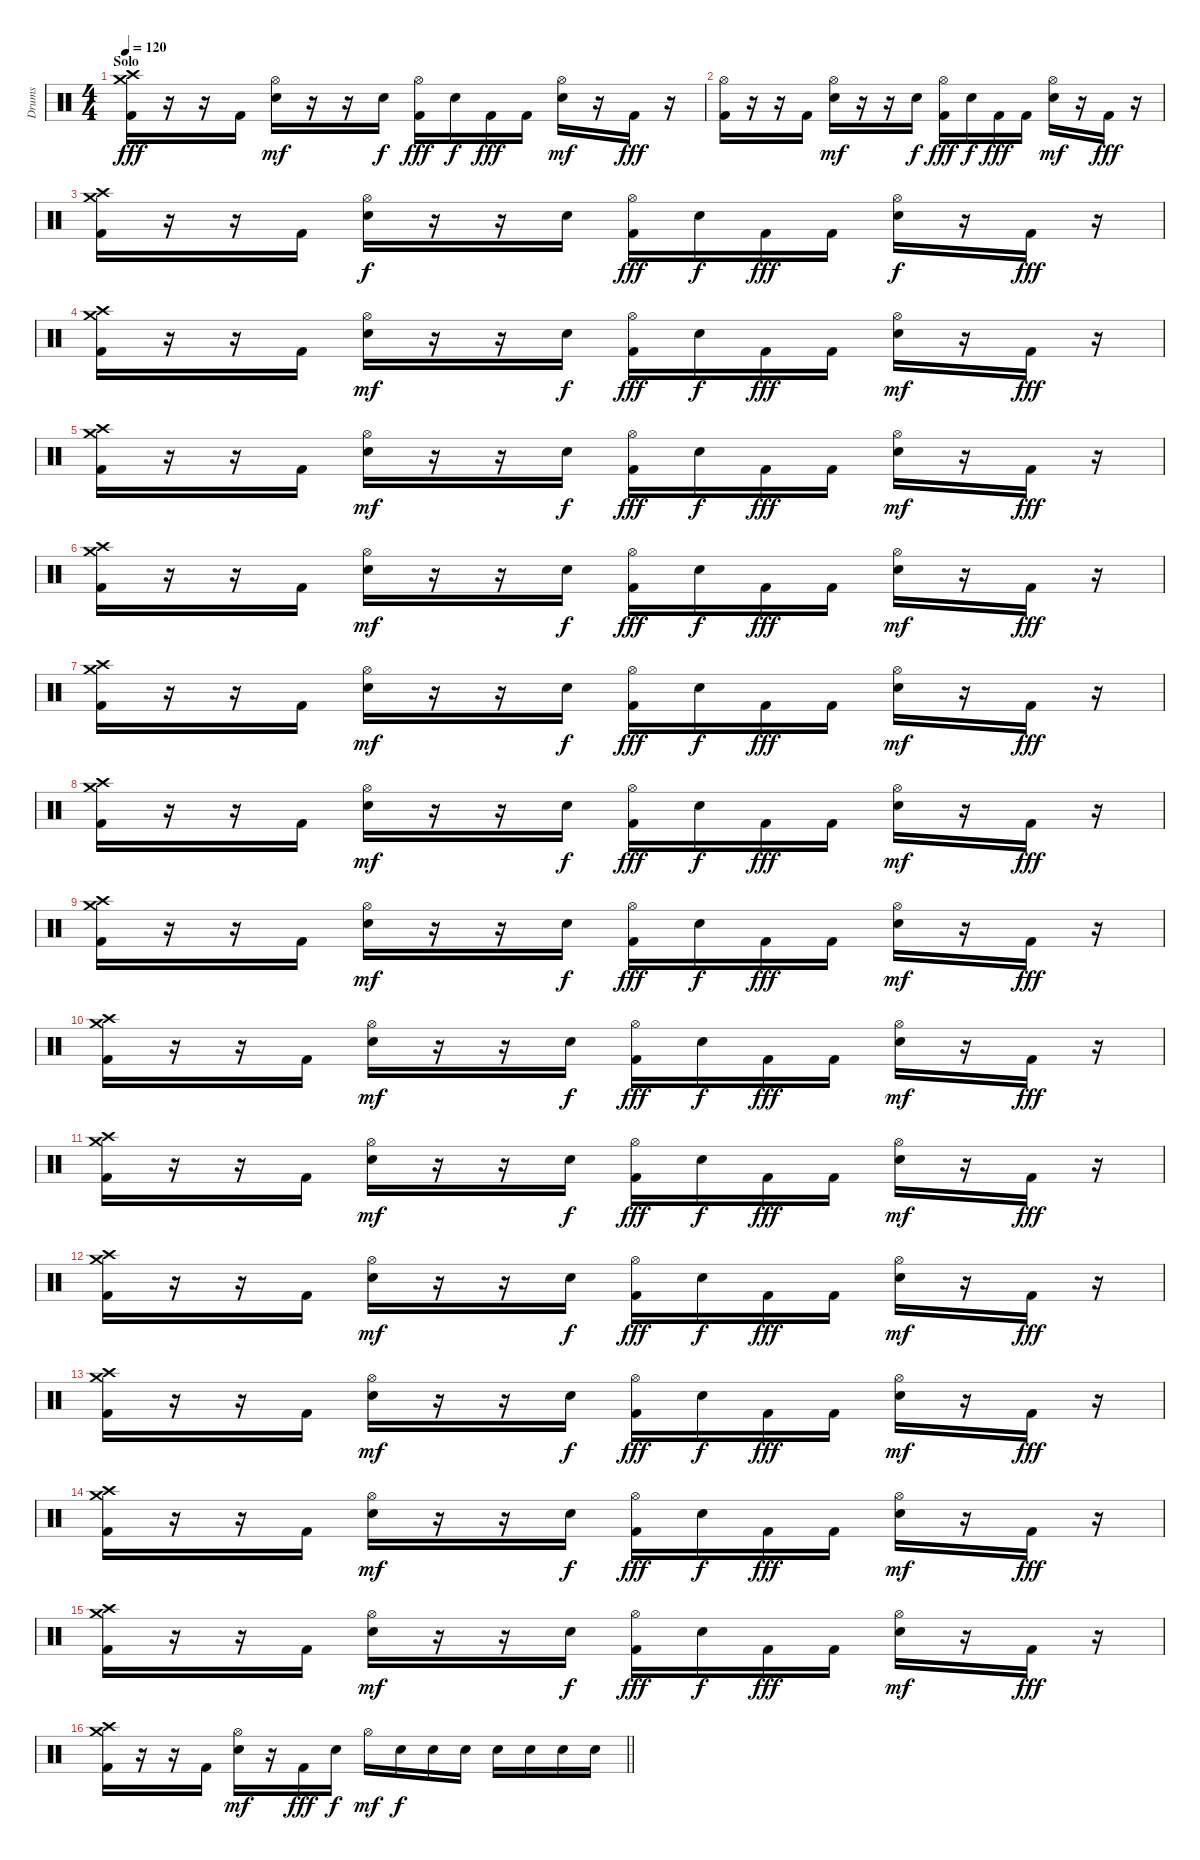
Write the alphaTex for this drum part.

\track ("Drums" "Drums") {instrument percussion}
\staff {score}
\articulation defaults
\ts (4 4)
\section ("" "Solo")
\tempo 120
\clef neutral
\ks c
("Crash medium (hit)" "Crash high (hit)" "Kick (hit) 2").16{dy fff} r.16 r.16 "Kick (hit) 2".16 ("Hi-Hat (open)" "Snare (hit) 2").16{dy mf} r.16 r.16 "Snare (hit) 2".16{dy f} ("Hi-Hat (open)" "Kick (hit) 2").16{dy fff} "Snare (hit) 2".16{dy f} "Kick (hit) 2".16{dy fff} "Kick (hit) 2".16 ("Hi-Hat (open)" "Snare (hit) 2").16{dy mf} r.16 "Kick (hit) 2".16{dy fff} r.16 |
("Hi-Hat (open)" "Kick (hit) 2").16 r.16 r.16 "Kick (hit) 2".16 ("Hi-Hat (open)" "Snare (hit) 2").16{dy mf} r.16 r.16 "Snare (hit) 2".16{dy f} ("Hi-Hat (open)" "Kick (hit) 2").16{dy fff} "Snare (hit) 2".16{dy f} "Kick (hit) 2".16{dy fff} "Kick (hit) 2".16 ("Hi-Hat (open)" "Snare (hit) 2").16{dy mf} r.16 "Kick (hit) 2".16{dy fff} r.16 |
("Crash medium (hit)" "Crash high (hit)" "Kick (hit) 2").16 r.16 r.16 "Kick (hit) 2".16 ("Hi-Hat (open)" "Snare (hit) 2").16{dy f} r.16 r.16 "Snare (hit) 2".16 ("Hi-Hat (open)" "Kick (hit) 2").16{dy fff} "Snare (hit) 2".16{dy f} "Kick (hit) 2".16{dy fff} "Kick (hit) 2".16 ("Hi-Hat (open)" "Snare (hit) 2").16{dy f} r.16 "Kick (hit) 2".16{dy fff} r.16 |
("Crash medium (hit)" "Crash high (hit)" "Kick (hit) 2").16 r.16 r.16 "Kick (hit) 2".16 ("Hi-Hat (open)" "Snare (hit) 2").16{dy mf} r.16 r.16 "Snare (hit) 2".16{dy f} ("Hi-Hat (open)" "Kick (hit) 2").16{dy fff} "Snare (hit) 2".16{dy f} "Kick (hit) 2".16{dy fff} "Kick (hit) 2".16 ("Hi-Hat (open)" "Snare (hit) 2").16{dy mf} r.16 "Kick (hit) 2".16{dy fff} r.16 |
("Crash medium (hit)" "Crash high (hit)" "Kick (hit) 2").16 r.16 r.16 "Kick (hit) 2".16 ("Hi-Hat (open)" "Snare (hit) 2").16{dy mf} r.16 r.16 "Snare (hit) 2".16{dy f} ("Hi-Hat (open)" "Kick (hit) 2").16{dy fff} "Snare (hit) 2".16{dy f} "Kick (hit) 2".16{dy fff} "Kick (hit) 2".16 ("Hi-Hat (open)" "Snare (hit) 2").16{dy mf} r.16 "Kick (hit) 2".16{dy fff} r.16 |
("Crash medium (hit)" "Crash high (hit)" "Kick (hit) 2").16 r.16 r.16 "Kick (hit) 2".16 ("Hi-Hat (open)" "Snare (hit) 2").16{dy mf} r.16 r.16 "Snare (hit) 2".16{dy f} ("Hi-Hat (open)" "Kick (hit) 2").16{dy fff} "Snare (hit) 2".16{dy f} "Kick (hit) 2".16{dy fff} "Kick (hit) 2".16 ("Hi-Hat (open)" "Snare (hit) 2").16{dy mf} r.16 "Kick (hit) 2".16{dy fff} r.16 |
("Crash medium (hit)" "Crash high (hit)" "Kick (hit) 2").16 r.16 r.16 "Kick (hit) 2".16 ("Hi-Hat (open)" "Snare (hit) 2").16{dy mf} r.16 r.16 "Snare (hit) 2".16{dy f} ("Hi-Hat (open)" "Kick (hit) 2").16{dy fff} "Snare (hit) 2".16{dy f} "Kick (hit) 2".16{dy fff} "Kick (hit) 2".16 ("Hi-Hat (open)" "Snare (hit) 2").16{dy mf} r.16 "Kick (hit) 2".16{dy fff} r.16 |
("Crash medium (hit)" "Crash high (hit)" "Kick (hit) 2").16 r.16 r.16 "Kick (hit) 2".16 ("Hi-Hat (open)" "Snare (hit) 2").16{dy mf} r.16 r.16 "Snare (hit) 2".16{dy f} ("Hi-Hat (open)" "Kick (hit) 2").16{dy fff} "Snare (hit) 2".16{dy f} "Kick (hit) 2".16{dy fff} "Kick (hit) 2".16 ("Hi-Hat (open)" "Snare (hit) 2").16{dy mf} r.16 "Kick (hit) 2".16{dy fff} r.16 |
("Crash medium (hit)" "Crash high (hit)" "Kick (hit) 2").16 r.16 r.16 "Kick (hit) 2".16 ("Hi-Hat (open)" "Snare (hit) 2").16{dy mf} r.16 r.16 "Snare (hit) 2".16{dy f} ("Hi-Hat (open)" "Kick (hit) 2").16{dy fff} "Snare (hit) 2".16{dy f} "Kick (hit) 2".16{dy fff} "Kick (hit) 2".16 ("Hi-Hat (open)" "Snare (hit) 2").16{dy mf} r.16 "Kick (hit) 2".16{dy fff} r.16 |
("Crash medium (hit)" "Crash high (hit)" "Kick (hit) 2").16 r.16 r.16 "Kick (hit) 2".16 ("Hi-Hat (open)" "Snare (hit) 2").16{dy mf} r.16 r.16 "Snare (hit) 2".16{dy f} ("Hi-Hat (open)" "Kick (hit) 2").16{dy fff} "Snare (hit) 2".16{dy f} "Kick (hit) 2".16{dy fff} "Kick (hit) 2".16 ("Hi-Hat (open)" "Snare (hit) 2").16{dy mf} r.16 "Kick (hit) 2".16{dy fff} r.16 |
("Crash medium (hit)" "Crash high (hit)" "Kick (hit) 2").16 r.16 r.16 "Kick (hit) 2".16 ("Hi-Hat (open)" "Snare (hit) 2").16{dy mf} r.16 r.16 "Snare (hit) 2".16{dy f} ("Hi-Hat (open)" "Kick (hit) 2").16{dy fff} "Snare (hit) 2".16{dy f} "Kick (hit) 2".16{dy fff} "Kick (hit) 2".16 ("Hi-Hat (open)" "Snare (hit) 2").16{dy mf} r.16 "Kick (hit) 2".16{dy fff} r.16 |
("Crash medium (hit)" "Crash high (hit)" "Kick (hit) 2").16 r.16 r.16 "Kick (hit) 2".16 ("Hi-Hat (open)" "Snare (hit) 2").16{dy mf} r.16 r.16 "Snare (hit) 2".16{dy f} ("Hi-Hat (open)" "Kick (hit) 2").16{dy fff} "Snare (hit) 2".16{dy f} "Kick (hit) 2".16{dy fff} "Kick (hit) 2".16 ("Hi-Hat (open)" "Snare (hit) 2").16{dy mf} r.16 "Kick (hit) 2".16{dy fff} r.16 |
("Crash medium (hit)" "Crash high (hit)" "Kick (hit) 2").16 r.16 r.16 "Kick (hit) 2".16 ("Hi-Hat (open)" "Snare (hit) 2").16{dy mf} r.16 r.16 "Snare (hit) 2".16{dy f} ("Hi-Hat (open)" "Kick (hit) 2").16{dy fff} "Snare (hit) 2".16{dy f} "Kick (hit) 2".16{dy fff} "Kick (hit) 2".16 ("Hi-Hat (open)" "Snare (hit) 2").16{dy mf} r.16 "Kick (hit) 2".16{dy fff} r.16 |
("Crash medium (hit)" "Crash high (hit)" "Kick (hit) 2").16 r.16 r.16 "Kick (hit) 2".16 ("Hi-Hat (open)" "Snare (hit) 2").16{dy mf} r.16 r.16 "Snare (hit) 2".16{dy f} ("Hi-Hat (open)" "Kick (hit) 2").16{dy fff} "Snare (hit) 2".16{dy f} "Kick (hit) 2".16{dy fff} "Kick (hit) 2".16 ("Hi-Hat (open)" "Snare (hit) 2").16{dy mf} r.16 "Kick (hit) 2".16{dy fff} r.16 |
("Crash medium (hit)" "Crash high (hit)" "Kick (hit) 2").16 r.16 r.16 "Kick (hit) 2".16 ("Hi-Hat (open)" "Snare (hit) 2").16{dy mf} r.16 r.16 "Snare (hit) 2".16{dy f} ("Hi-Hat (open)" "Kick (hit) 2").16{dy fff} "Snare (hit) 2".16{dy f} "Kick (hit) 2".16{dy fff} "Kick (hit) 2".16 ("Hi-Hat (open)" "Snare (hit) 2").16{dy mf} r.16 "Kick (hit) 2".16{dy fff} r.16 |
\barLineRight lightlight
("Crash medium (hit)" "Crash high (hit)" "Kick (hit) 2").16 r.16 r.16 "Kick (hit) 2".16 ("Hi-Hat (open)" "Snare (hit) 2").16{dy mf} r.16 "Kick (hit) 2".16{dy fff} "Snare (hit) 2".16{dy f} "Hi-Hat (open)".16{dy mf} "Snare (hit) 2".16{dy f} "Snare (hit) 2".16 "Snare (hit) 2".16 "Snare (hit) 2".16 "Snare (hit) 2".16 "Snare (hit) 2".16 "Snare (hit) 2".16
